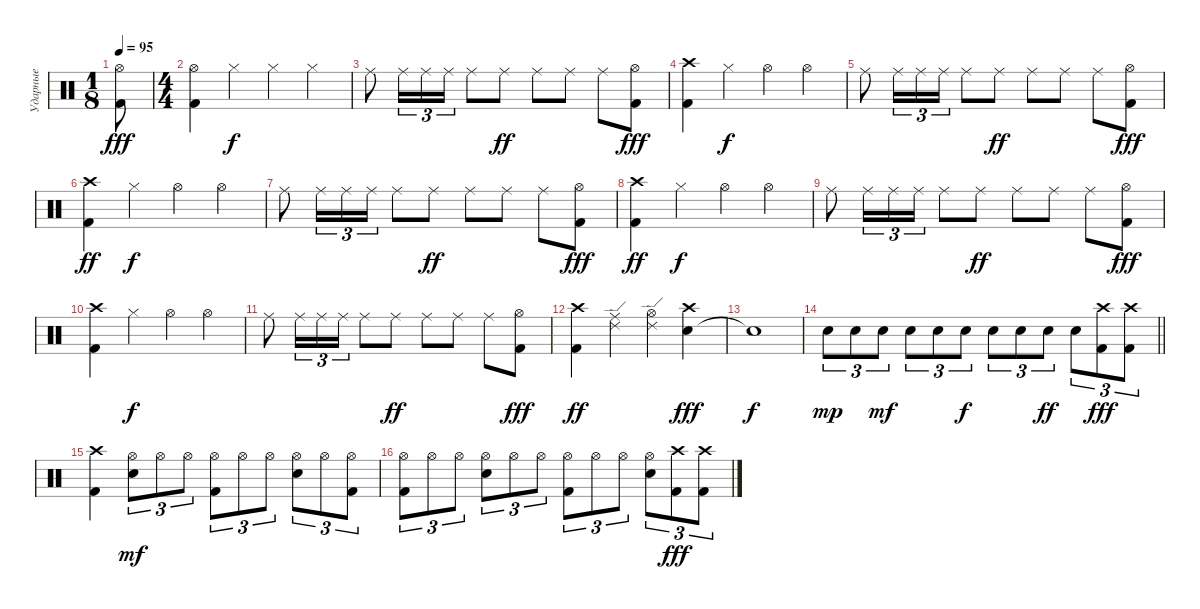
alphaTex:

\track ("Ударные" "Ударные") {instrument percussion}
\staff
\articulation defaults
\ts (1 8)
\tempo 95
\clef neutral
\ks c
("Kick (hit) 2" "Hi-Hat (open)").8{dy fff} |
\ts (4 4)
("Kick (hit) 2" "Hi-Hat (open)").4 "Hi-Hat (closed)".4{dy f} "Hi-Hat (closed)".4 "Hi-Hat (closed)".4 |
"Ride (middle)".8 "Ride (middle)".16{tu (3 2)} "Ride (middle)".16{tu (3 2)} "Ride (middle)".16{tu (3 2)} "Ride (middle)".8 "Ride (middle)".8{dy ff} "Ride (middle)".8 "Ride (middle)".8 "Ride (middle)".8 ("Kick (hit) 2" "Hi-Hat (open)").8{dy fff} |
("Kick (hit) 2" "Crash high (hit)").4 "Hi-Hat (closed)".4{dy f} "Hi-Hat (open)".4 "Hi-Hat (open)".4 |
"Ride (middle)".8 "Ride (middle)".16{tu (3 2)} "Ride (middle)".16{tu (3 2)} "Ride (middle)".16{tu (3 2)} "Ride (middle)".8 "Ride (middle)".8{dy ff} "Ride (middle)".8 "Ride (middle)".8 "Ride (middle)".8 ("Kick (hit) 2" "Hi-Hat (open)").8{dy fff} |
("Kick (hit) 2" "Crash high (hit)").4{dy ff} "Hi-Hat (closed)".4{dy f} "Hi-Hat (open)".4 "Hi-Hat (open)".4 |
"Ride (middle)".8 "Ride (middle)".16{tu (3 2)} "Ride (middle)".16{tu (3 2)} "Ride (middle)".16{tu (3 2)} "Ride (middle)".8 "Ride (middle)".8{dy ff} "Ride (middle)".8 "Ride (middle)".8 "Ride (middle)".8 ("Kick (hit) 2" "Hi-Hat (open)").8{dy fff} |
("Kick (hit) 2" "Crash high (hit)").4{dy ff} "Hi-Hat (closed)".4{dy f} "Hi-Hat (open)".4 "Hi-Hat (open)".4 |
"Ride (middle)".8 "Ride (middle)".16{tu (3 2)} "Ride (middle)".16{tu (3 2)} "Ride (middle)".16{tu (3 2)} "Ride (middle)".8 "Ride (middle)".8{dy ff} "Ride (middle)".8 "Ride (middle)".8 "Ride (middle)".8 ("Kick (hit) 2" "Hi-Hat (open)").8{dy fff} |
("Kick (hit) 2" "Crash high (hit)").4 "Hi-Hat (closed)".4{dy f} "Hi-Hat (open)".4 "Hi-Hat (open)".4 |
"Ride (middle)".8 "Ride (middle)".16{tu (3 2)} "Ride (middle)".16{tu (3 2)} "Ride (middle)".16{tu (3 2)} "Ride (middle)".8 "Ride (middle)".8{dy ff} "Ride (middle)".8 "Ride (middle)".8 "Ride (middle)".8 ("Kick (hit) 2" "Hi-Hat (open)").8{dy fff} |
("Kick (hit) 2" "Crash high (hit)").4{dy ff} ("Ride (edge) 2" "Ride (middle)").4 ("Ride (edge) 2" "Hi-Hat (open)").4 ("Snare (hit) 2" "Crash high (hit)").4{dy fff} |
"Snare (hit)"{t}.1{dy f} |
\barLineRight lightlight "Snare (hit) 2".8{tu (3 2) dy mp} "Snare (hit) 2".8{tu (3 2)} "Snare (hit) 2".8{tu (3 2) dy mf} "Snare (hit) 2".8{tu (3 2)} "Snare (hit) 2".8{tu (3 2)} "Snare (hit) 2".8{tu (3 2) dy f} "Snare (hit) 2".8{tu (3 2)} "Snare (hit) 2".8{tu (3 2)} "Snare (hit) 2".8{tu (3 2) dy ff} "Snare (hit) 2".8{tu (3 2)}
("Kick (hit) 2" "Crash high (hit)").8{tu (3 2) dy fff} ("Kick (hit) 2" "Crash high (hit)").8{tu (3 2)} |
("Kick (hit) 2" "Crash high (hit)").4 ("Snare (hit) 2" "Hi-Hat (open)").8{tu (3 2) dy mf} "Hi-Hat (open)".8{tu (3 2)} "Hi-Hat (open)".8{tu (3 2)} ("Kick (hit) 2" "Hi-Hat (open)").8{tu (3 2)} "Hi-Hat (open)".8{tu (3 2)} "Hi-Hat (open)".8{tu (3 2)} ("Snare (hit) 2" "Hi-Hat (open)").8{tu (3 2)} "Hi-Hat (open)".8{tu (3 2)} ("Kick (hit) 2" "Hi-Hat (open)").8{tu (3 2)} |
("Kick (hit) 2" "Hi-Hat (open)").8{tu (3 2)} "Hi-Hat (open)".8{tu (3 2)} "Hi-Hat (open)".8{tu (3 2)} ("Snare (hit) 2" "Hi-Hat (open)").8{tu (3 2)} "Hi-Hat (open)".8{tu (3 2)} "Hi-Hat (open)".8{tu (3 2)} ("Kick (hit) 2" "Hi-Hat (open)").8{tu (3 2)} "Hi-Hat (open)".8{tu (3 2)} "Hi-Hat (open)".8{tu (3 2)} ("Snare (hit) 2" "Hi-Hat (open)").8{tu (3 2)} ("Kick (hit) 2" "Crash high (hit)").8{tu (3 2) dy fff} ("Kick (hit) 2" "Crash high (hit)").8{tu (3 2)}
